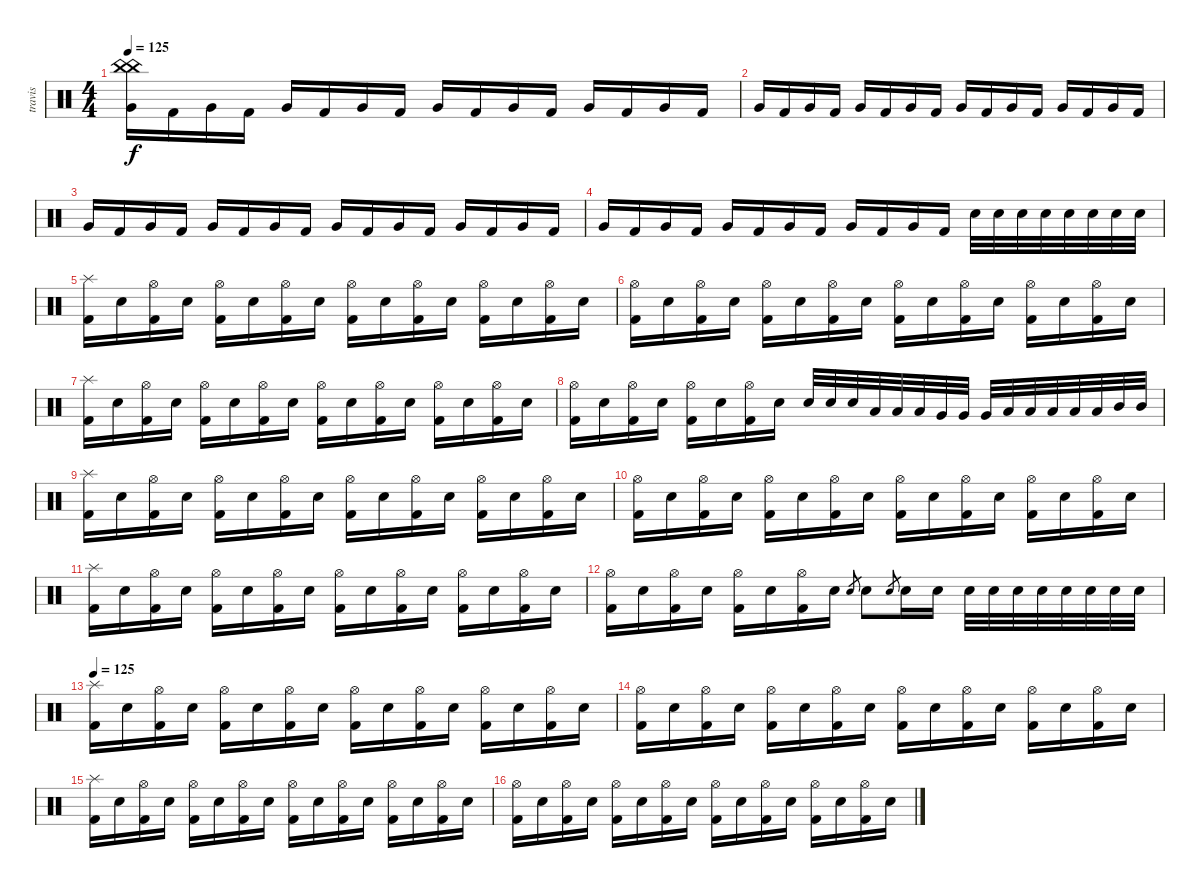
\track ("travis" "travis") {instrument percussion}
\staff {score}
\articulation defaults
\ts (4 4)
\tempo 125
\clef neutral
\ks c
("China (hit)" "China (hit)" "Very Low Tom (hit)").16{dy f} "Kick (hit) 2".16 "Very Low Tom (hit)".16 "Kick (hit) 2".16 "Very Low Tom (hit)".16 "Kick (hit) 2".16 "Very Low Tom (hit)".16 "Kick (hit) 2".16 "Very Low Tom (hit)".16 "Kick (hit) 2".16 "Very Low Tom (hit)".16 "Kick (hit) 2".16 "Very Low Tom (hit)".16 "Kick (hit) 2".16 "Very Low Tom (hit)".16 "Kick (hit) 2".16 |
"Very Low Tom (hit)".16 "Kick (hit) 2".16 "Very Low Tom (hit)".16 "Kick (hit) 2".16 "Very Low Tom (hit)".16 "Kick (hit) 2".16 "Very Low Tom (hit)".16 "Kick (hit) 2".16 "Very Low Tom (hit)".16 "Kick (hit) 2".16 "Very Low Tom (hit)".16 "Kick (hit) 2".16 "Very Low Tom (hit)".16 "Kick (hit) 2".16 "Very Low Tom (hit)".16 "Kick (hit) 2".16 |
"Very Low Tom (hit)".16 "Kick (hit) 2".16 "Very Low Tom (hit)".16 "Kick (hit) 2".16 "Very Low Tom (hit)".16 "Kick (hit) 2".16 "Very Low Tom (hit)".16 "Kick (hit) 2".16 "Very Low Tom (hit)".16 "Kick (hit) 2".16 "Very Low Tom (hit)".16 "Kick (hit) 2".16 "Very Low Tom (hit)".16 "Kick (hit) 2".16 "Very Low Tom (hit)".16 "Kick (hit) 2".16 |
"Very Low Tom (hit)".16 "Kick (hit) 2".16 "Very Low Tom (hit)".16 "Kick (hit) 2".16 "Very Low Tom (hit)".16 "Kick (hit) 2".16 "Very Low Tom (hit)".16 "Kick (hit) 2".16 "Very Low Tom (hit)".16 "Kick (hit) 2".16 "Very Low Tom (hit)".16 "Kick (hit) 2".16 "Electric Snare (hit)".32 "Electric Snare (hit)".32 "Electric Snare (hit)".32 "Electric Snare (hit)".32 "Electric Snare (hit)".32 "Electric Snare (hit)".32 "Electric Snare (hit)".32 "Electric Snare (hit)".32 |
("Splash (hit)" "Kick (hit) 2").16 "Electric Snare (hit)".16 ("Hi-Hat (open)" "Kick (hit) 2").16 "Electric Snare (hit)".16 ("Hi-Hat (open)" "Kick (hit) 2").16 "Electric Snare (hit)".16 ("Hi-Hat (open)" "Kick (hit) 2").16 "Electric Snare (hit)".16 ("Hi-Hat (open)" "Kick (hit) 2").16 "Electric Snare (hit)".16 ("Hi-Hat (open)" "Kick (hit) 2").16 "Electric Snare (hit)".16 ("Hi-Hat (open)" "Kick (hit) 2").16 "Electric Snare (hit)".16 ("Hi-Hat (open)" "Kick (hit) 2").16 "Electric Snare (hit)".16 |
("Hi-Hat (open)" "Kick (hit) 2").16 "Electric Snare (hit)".16 ("Hi-Hat (open)" "Kick (hit) 2").16 "Electric Snare (hit)".16 ("Hi-Hat (open)" "Kick (hit) 2").16 "Electric Snare (hit)".16 ("Hi-Hat (open)" "Kick (hit) 2").16 "Electric Snare (hit)".16 ("Hi-Hat (open)" "Kick (hit) 2").16 "Electric Snare (hit)".16 ("Hi-Hat (open)" "Kick (hit) 2").16 "Electric Snare (hit)".16 ("Hi-Hat (open)" "Kick (hit) 2").16 "Electric Snare (hit)".16 ("Hi-Hat (open)" "Kick (hit) 2").16 "Electric Snare (hit)".16 |
("Splash (hit)" "Kick (hit) 2").16 "Electric Snare (hit)".16 ("Hi-Hat (open)" "Kick (hit) 2").16 "Electric Snare (hit)".16 ("Hi-Hat (open)" "Kick (hit) 2").16 "Electric Snare (hit)".16 ("Hi-Hat (open)" "Kick (hit) 2").16 "Electric Snare (hit)".16 ("Hi-Hat (open)" "Kick (hit) 2").16 "Electric Snare (hit)".16 ("Hi-Hat (open)" "Kick (hit) 2").16 "Electric Snare (hit)".16 ("Hi-Hat (open)" "Kick (hit) 2").16 "Electric Snare (hit)".16 ("Hi-Hat (open)" "Kick (hit) 2").16 "Electric Snare (hit)".16 |
("Hi-Hat (open)" "Kick (hit) 2").16 "Electric Snare (hit)".16 ("Hi-Hat (open)" "Kick (hit) 2").16 "Electric Snare (hit)".16 ("Hi-Hat (open)" "Kick (hit) 2").16 "Electric Snare (hit)".16 ("Hi-Hat (open)" "Kick (hit) 2").16 "Electric Snare (hit)".16 "Electric Snare (hit)".32 "Electric Snare (hit)".32 "Electric Snare (hit)".32 "Low Tom (hit)".32 "Low Tom (hit)".32 "Low Tom (hit)".32 "Very Low Tom (hit)".32 "Very Low Tom (hit)".32 "Very Low Tom (hit)".32 "Low Floor Tom (hit)".32 "Low Floor Tom (hit)".32 "Low Tom (hit)".32 "Low Tom (hit)".32 "Low Tom (hit)".32 "Mid Tom (hit)".32 "Mid Tom (hit)".32 |
("Splash (hit)" "Kick (hit) 2").16 "Electric Snare (hit)".16 ("Hi-Hat (open)" "Kick (hit) 2").16 "Electric Snare (hit)".16 ("Hi-Hat (open)" "Kick (hit) 2").16 "Electric Snare (hit)".16 ("Hi-Hat (open)" "Kick (hit) 2").16 "Electric Snare (hit)".16 ("Hi-Hat (open)" "Kick (hit) 2").16 "Electric Snare (hit)".16 ("Hi-Hat (open)" "Kick (hit) 2").16 "Electric Snare (hit)".16 ("Hi-Hat (open)" "Kick (hit) 2").16 "Electric Snare (hit)".16 ("Hi-Hat (open)" "Kick (hit) 2").16 "Electric Snare (hit)".16 |
("Hi-Hat (open)" "Kick (hit) 2").16 "Electric Snare (hit)".16 ("Hi-Hat (open)" "Kick (hit) 2").16 "Electric Snare (hit)".16 ("Hi-Hat (open)" "Kick (hit) 2").16 "Electric Snare (hit)".16 ("Hi-Hat (open)" "Kick (hit) 2").16 "Electric Snare (hit)".16 ("Hi-Hat (open)" "Kick (hit) 2").16 "Electric Snare (hit)".16 ("Hi-Hat (open)" "Kick (hit) 2").16 "Electric Snare (hit)".16 ("Hi-Hat (open)" "Kick (hit) 2").16 "Electric Snare (hit)".16 ("Hi-Hat (open)" "Kick (hit) 2").16 "Electric Snare (hit)".16 |
("Splash (hit)" "Kick (hit) 2").16 "Electric Snare (hit)".16 ("Hi-Hat (open)" "Kick (hit) 2").16 "Electric Snare (hit)".16 ("Hi-Hat (open)" "Kick (hit) 2").16 "Electric Snare (hit)".16 ("Hi-Hat (open)" "Kick (hit) 2").16 "Electric Snare (hit)".16 ("Hi-Hat (open)" "Kick (hit) 2").16 "Electric Snare (hit)".16 ("Hi-Hat (open)" "Kick (hit) 2").16 "Electric Snare (hit)".16 ("Hi-Hat (open)" "Kick (hit) 2").16 "Electric Snare (hit)".16 ("Hi-Hat (open)" "Kick (hit) 2").16 "Electric Snare (hit)".16 |
("Hi-Hat (open)" "Kick (hit) 2").16 "Electric Snare (hit)".16 ("Hi-Hat (open)" "Kick (hit) 2").16 "Electric Snare (hit)".16 ("Hi-Hat (open)" "Kick (hit) 2").16 "Electric Snare (hit)".16 ("Hi-Hat (open)" "Kick (hit) 2").16 "Electric Snare (hit)".16 "Electric Snare (hit)".8{gr} "Electric Snare (hit)".8 "Electric Snare (hit)".8{gr} "Electric Snare (hit)".16 "Electric Snare (hit)".16 "Electric Snare (hit)".32 "Electric Snare (hit)".32 "Electric Snare (hit)".32 "Electric Snare (hit)".32 "Electric Snare (hit)".32 "Electric Snare (hit)".32 "Electric Snare (hit)".32 "Electric Snare (hit)".32 |
\tempo 125
("Splash (hit)" "Kick (hit) 2").16 "Electric Snare (hit)".16 ("Hi-Hat (open)" "Kick (hit) 2").16 "Electric Snare (hit)".16 ("Hi-Hat (open)" "Kick (hit) 2").16 "Electric Snare (hit)".16 ("Hi-Hat (open)" "Kick (hit) 2").16 "Electric Snare (hit)".16 ("Hi-Hat (open)" "Kick (hit) 2").16 "Electric Snare (hit)".16 ("Hi-Hat (open)" "Kick (hit) 2").16 "Electric Snare (hit)".16 ("Hi-Hat (open)" "Kick (hit) 2").16 "Electric Snare (hit)".16 ("Hi-Hat (open)" "Kick (hit) 2").16 "Electric Snare (hit)".16 |
("Hi-Hat (open)" "Kick (hit) 2").16 "Electric Snare (hit)".16 ("Hi-Hat (open)" "Kick (hit) 2").16 "Electric Snare (hit)".16 ("Hi-Hat (open)" "Kick (hit) 2").16 "Electric Snare (hit)".16 ("Hi-Hat (open)" "Kick (hit) 2").16 "Electric Snare (hit)".16 ("Hi-Hat (open)" "Kick (hit) 2").16 "Electric Snare (hit)".16 ("Hi-Hat (open)" "Kick (hit) 2").16 "Electric Snare (hit)".16 ("Hi-Hat (open)" "Kick (hit) 2").16 "Electric Snare (hit)".16 ("Hi-Hat (open)" "Kick (hit) 2").16 "Electric Snare (hit)".16 |
("Splash (hit)" "Kick (hit) 2").16 "Electric Snare (hit)".16 ("Hi-Hat (open)" "Kick (hit) 2").16 "Electric Snare (hit)".16 ("Hi-Hat (open)" "Kick (hit) 2").16 "Electric Snare (hit)".16 ("Hi-Hat (open)" "Kick (hit) 2").16 "Electric Snare (hit)".16 ("Hi-Hat (open)" "Kick (hit) 2").16 "Electric Snare (hit)".16 ("Hi-Hat (open)" "Kick (hit) 2").16 "Electric Snare (hit)".16 ("Hi-Hat (open)" "Kick (hit) 2").16 "Electric Snare (hit)".16 ("Hi-Hat (open)" "Kick (hit) 2").16 "Electric Snare (hit)".16 |
("Hi-Hat (open)" "Kick (hit) 2").16 "Electric Snare (hit)".16 ("Hi-Hat (open)" "Kick (hit) 2").16 "Electric Snare (hit)".16 ("Hi-Hat (open)" "Kick (hit) 2").16 "Electric Snare (hit)".16 ("Hi-Hat (open)" "Kick (hit) 2").16 "Electric Snare (hit)".16 ("Hi-Hat (open)" "Kick (hit) 2").16 "Electric Snare (hit)".16 ("Hi-Hat (open)" "Kick (hit) 2").16 "Electric Snare (hit)".16 ("Hi-Hat (open)" "Kick (hit) 2").16 "Electric Snare (hit)".16 ("Hi-Hat (open)" "Kick (hit) 2").16 "Electric Snare (hit)".16
